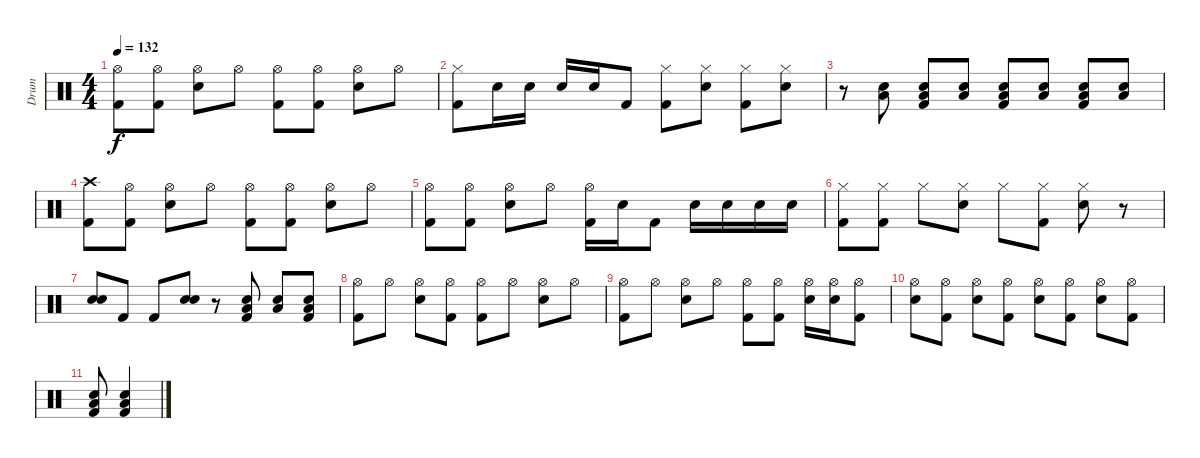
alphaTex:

\track ("Drum" "Drum") {instrument percussion}
\staff {score}
\articulation defaults
\ts (4 4)
\tempo 132
\clef neutral
\ks c
("Hi-Hat (open)" "Kick (hit) 2").8{dy f} ("Hi-Hat (open)" "Kick (hit) 2").8 ("Hi-Hat (open)" "Snare (hit) 2").8 "Hi-Hat (open)".8 ("Hi-Hat (open)" "Kick (hit) 2").8 ("Hi-Hat (open)" "Kick (hit) 2").8 ("Hi-Hat (open)" "Snare (hit) 2").8 "Hi-Hat (open)".8 |
("Hi-Hat (closed)" "Kick (hit) 2").8 "Snare (hit) 2".16 "Snare (hit) 2".16 "Snare (hit) 2".16 "Snare (hit) 2".16 "Kick (hit) 2".8 ("Hi-Hat (closed)" "Kick (hit) 2").8 ("Hi-Hat (closed)" "Snare (hit) 2").8 ("Hi-Hat (closed)" "Kick (hit) 2").8 ("Hi-Hat (closed)" "Snare (hit) 2").8 |
r.8 ("Low Tom (hit)" "Snare (hit) 2").8 ("Low Tom (hit)" "Snare (hit) 2" "Kick (hit) 2").8 ("Low Tom (hit)" "Snare (hit) 2").8 ("Low Tom (hit)" "Snare (hit) 2" "Kick (hit) 2").8 ("Low Tom (hit)" "Snare (hit) 2").8 ("Low Tom (hit)" "Snare (hit) 2" "Kick (hit) 2").8 ("Low Tom (hit)" "Snare (hit) 2").8 |
("Crash high (hit)" "Kick (hit) 2").8 ("Hi-Hat (open)" "Kick (hit) 2").8 ("Hi-Hat (open)" "Snare (hit) 2").8 "Hi-Hat (open)".8 ("Hi-Hat (open)" "Kick (hit) 2").8 ("Hi-Hat (open)" "Kick (hit) 2").8 ("Hi-Hat (open)" "Snare (hit) 2").8 "Hi-Hat (open)".8 |
("Hi-Hat (open)" "Kick (hit) 2").8 ("Hi-Hat (open)" "Kick (hit) 2").8 ("Hi-Hat (open)" "Snare (hit) 2").8 "Hi-Hat (open)".8 ("Hi-Hat (open)" "Kick (hit) 2").16 "Snare (hit) 2".16 "Kick (hit) 2".8 "Snare (hit) 2".16 "Snare (hit) 2".16 "Snare (hit) 2".16 "Snare (hit) 2".16 |
("Hi-Hat (closed)" "Kick (hit) 2").8 ("Hi-Hat (closed)" "Kick (hit) 2").8 "Hi-Hat (closed)".8 ("Hi-Hat (closed)" "Snare (hit) 2").8 "Hi-Hat (closed)".8 ("Hi-Hat (closed)" "Kick (hit) 2").8 ("Hi-Hat (closed)" "Snare (hit) 2").8 r.8 |
("Snare (hit) 2" "Snare (hit) 2").8{bu 480} "Kick (hit) 2".8 "Kick (hit) 2".8 ("Snare (hit) 2" "Snare (hit) 2").8{bu 480} r.8 ("Low Tom (hit)" "Snare (hit) 2" "Kick (hit) 2").8 ("Low Tom (hit)" "Snare (hit) 2").8 ("Low Tom (hit)" "Snare (hit) 2" "Kick (hit) 2").8 |
("Hi-Hat (open)" "Kick (hit) 2").8 "Hi-Hat (open)".8 ("Hi-Hat (open)" "Snare (hit) 2").8 ("Hi-Hat (open)" "Kick (hit) 2").8 ("Hi-Hat (open)" "Kick (hit) 2").8 "Hi-Hat (open)".8 ("Hi-Hat (open)" "Snare (hit) 2").8 "Hi-Hat (open)".8 |
("Hi-Hat (open)" "Kick (hit) 2").8 "Hi-Hat (open)".8 ("Hi-Hat (open)" "Snare (hit) 2").8 "Hi-Hat (open)".8 ("Hi-Hat (open)" "Kick (hit) 2").8 ("Hi-Hat (open)" "Kick (hit) 2").8 ("Hi-Hat (open)" "Snare (hit) 2").16 ("Hi-Hat (open)" "Snare (hit) 2").16 ("Hi-Hat (open)" "Kick (hit) 2").8 |
("Hi-Hat (open)" "Snare (hit) 2").8 ("Hi-Hat (open)" "Kick (hit) 2").8 ("Hi-Hat (open)" "Snare (hit) 2").8 ("Hi-Hat (open)" "Kick (hit) 2").8 ("Hi-Hat (open)" "Snare (hit) 2").8 ("Hi-Hat (open)" "Kick (hit) 2").8 ("Hi-Hat (open)" "Electric Snare (hit)").8 ("Hi-Hat (open)" "Kick (hit) 2").8 |
("Snare (hit) 2" "Low Tom (hit)" "Kick (hit) 2").8 ("Snare (hit) 2" "Low Tom (hit)" "Kick (hit) 2").4
